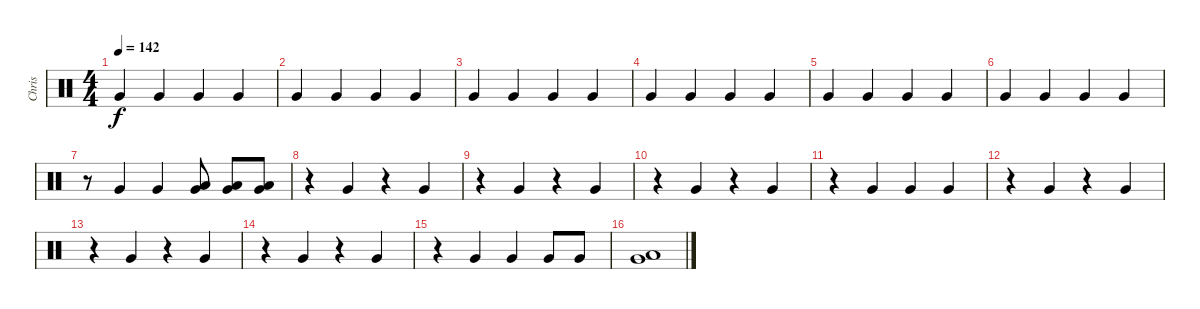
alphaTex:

\track ("Chris" "Chris") {instrument percussion}
\staff {score}
\articulation defaults
\ts (4 4)
\tempo 142
\clef neutral
\ks c "Very Low Tom (hit)".4{dy f} "Very Low Tom (hit)".4 "Very Low Tom (hit)".4 "Very Low Tom (hit)".4
|
"Very Low Tom (hit)".4 "Very Low Tom (hit)".4 "Very Low Tom (hit)".4 "Very Low Tom (hit)".4 |
"Very Low Tom (hit)".4 "Very Low Tom (hit)".4 "Very Low Tom (hit)".4 "Very Low Tom (hit)".4 |
"Very Low Tom (hit)".4 "Very Low Tom (hit)".4 "Very Low Tom (hit)".4 "Very Low Tom (hit)".4 |
"Very Low Tom (hit)".4 "Very Low Tom (hit)".4 "Very Low Tom (hit)".4 "Very Low Tom (hit)".4 |
"Very Low Tom (hit)".4 "Very Low Tom (hit)".4 "Very Low Tom (hit)".4 "Very Low Tom (hit)".4 |
r.8 "Very Low Tom (hit)".4 "Very Low Tom (hit)".4 ("Very Low Tom (hit)" "Low Floor Tom (hit)").8 ("Very Low Tom (hit)" "Low Floor Tom (hit)").8 ("Very Low Tom (hit)" "Low Floor Tom (hit)").8 |
r.4 "Very Low Tom (hit)".4 r.4 "Very Low Tom (hit)".4 |
r.4 "Very Low Tom (hit)".4 r.4 "Very Low Tom (hit)".4 |
r.4 "Very Low Tom (hit)".4 r.4 "Very Low Tom (hit)".4 |
r.4 "Very Low Tom (hit)".4 "Very Low Tom (hit)".4 "Very Low Tom (hit)".4 |
r.4 "Very Low Tom (hit)".4 r.4 "Very Low Tom (hit)".4 |
r.4 "Very Low Tom (hit)".4 r.4 "Very Low Tom (hit)".4 |
r.4 "Very Low Tom (hit)".4 r.4 "Very Low Tom (hit)".4 |
r.4 "Very Low Tom (hit)".4 "Very Low Tom (hit)".4 "Very Low Tom (hit)".8 "Very Low Tom (hit)".8 |
("Very Low Tom (hit)" "Low Floor Tom (hit)").1
